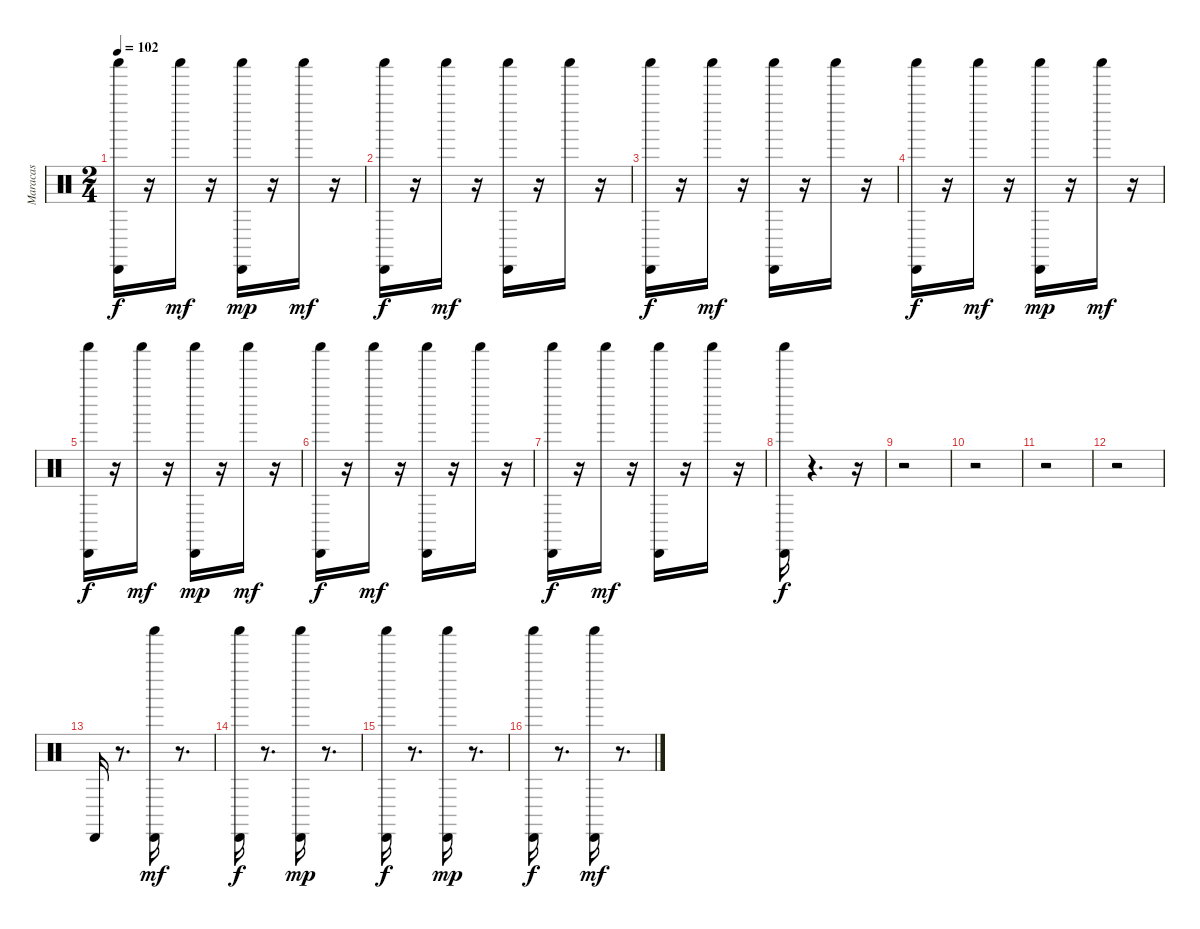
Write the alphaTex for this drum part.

\track ("Maracas" "Maracas") {instrument percussion}
\staff {score}
\articulation defaults
\ts (2 4)
\tempo 102
\clef neutral
\ks c
("Cabasa (hit)" "Shaker (hit)").16{dy f} r.16 "Shaker (hit)".16{dy mf} r.16 ("Cabasa (hit)" "Shaker (hit)").16{dy mp} r.16 "Shaker (hit)".16{dy mf} r.16 |
("Cabasa (hit)" "Shaker (hit)").16{dy f} r.16 "Shaker (hit)".16{dy mf} r.16 ("Cabasa (hit)" "Shaker (hit)").16 r.16 "Shaker (hit)".16 r.16 |
("Shaker (hit)" "Cabasa (hit)").16{dy f} r.16 "Shaker (hit)".16{dy mf} r.16 ("Shaker (hit)" "Cabasa (hit)").16 r.16 "Shaker (hit)".16 r.16 |
("Shaker (hit)" "Cabasa (hit)").16{dy f} r.16 "Shaker (hit)".16{dy mf} r.16 ("Shaker (hit)" "Cabasa (hit)").16{dy mp} r.16 "Shaker (hit)".16{dy mf} r.16 |
("Cabasa (hit)" "Shaker (hit)").16{dy f} r.16 "Shaker (hit)".16{dy mf} r.16 ("Cabasa (hit)" "Shaker (hit)").16{dy mp} r.16 "Shaker (hit)".16{dy mf} r.16 |
("Cabasa (hit)" "Shaker (hit)").16{dy f} r.16 "Shaker (hit)".16{dy mf} r.16 ("Cabasa (hit)" "Shaker (hit)").16 r.16 "Shaker (hit)".16 r.16 |
("Shaker (hit)" "Cabasa (hit)").16{dy f} r.16 "Shaker (hit)".16{dy mf} r.16 ("Shaker (hit)" "Cabasa (hit)").16 r.16 "Shaker (hit)".16 r.16 |
("Shaker (hit)" "Cabasa (hit)").16{dy f} r.4{d} r.16 |
r.2 |
r.2 |
r.2 |
r.2 |
"Cabasa (hit)".16 r.8{d} ("Shaker (hit)" "Cabasa (hit)").16{dy mf} r.8{d} |
("Shaker (hit)" "Cabasa (hit)").16{dy f} r.8{d} ("Shaker (hit)" "Cabasa (hit)").16{dy mp} r.8{d} |
("Cabasa (hit)" "Shaker (hit)").16{dy f} r.8{d} ("Cabasa (hit)" "Shaker (hit)").16{dy mp} r.8{d} |
("Cabasa (hit)" "Shaker (hit)").16{dy f} r.8{d} ("Cabasa (hit)" "Shaker (hit)").16{dy mf} r.8{d}
